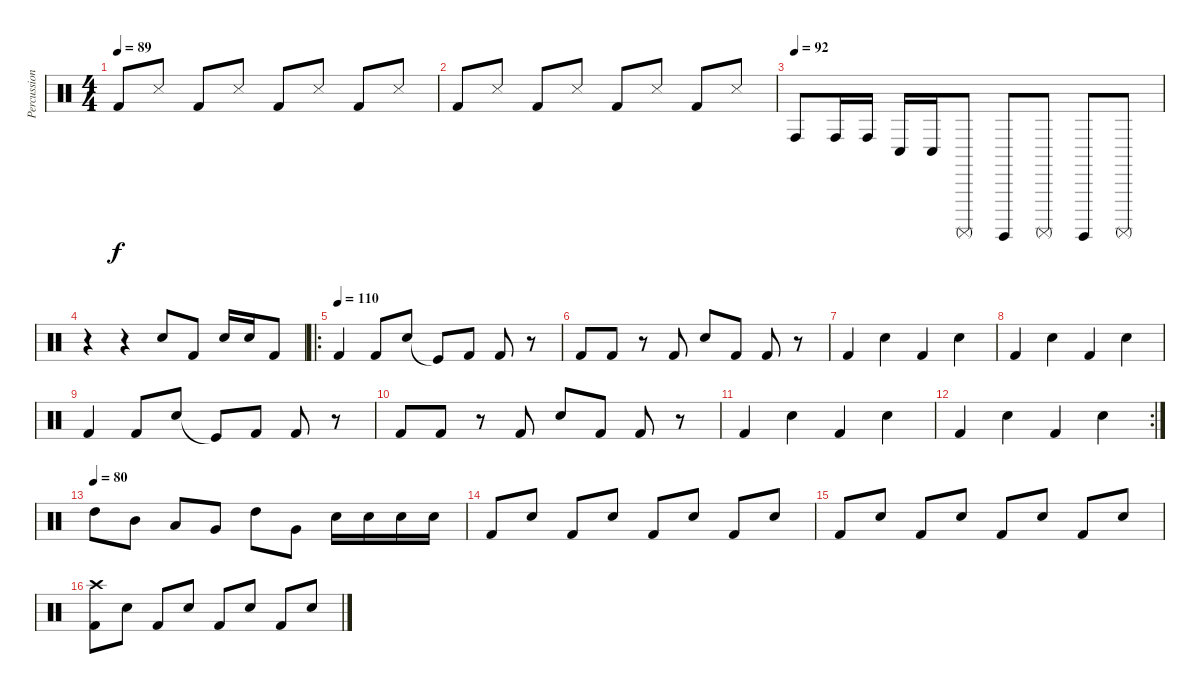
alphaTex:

\track ("Percussion" "Percussion") {instrument percussion}
\staff {score}
\articulation defaults
\ts (4 4)
\tempo 89
\clef neutral
\ks c "Kick (hit) 2".8{dy f} "Snare (side stick) 3".8 "Kick (hit) 2".8 "Snare (side stick) 3".8 "Kick (hit) 2".8 "Snare (side stick) 3".8 "Kick (hit) 2".8 "Snare (side stick) 3".8
|
"Kick (hit) 2".8 "Snare (side stick) 3".8 "Kick (hit) 2".8 "Snare (side stick) 3".8 "Kick (hit) 2".8 "Snare (side stick) 3".8 "Kick (hit) 2".8 "Snare (side stick) 3".8 |
\tempo (92)
"Conga high (hit)".8 "Conga high (hit)".16 "Conga high (hit)".16 "Conga low (hit)".16 "Conga low (hit)".16 "Surdo (mute)".8 "Surdo (hit)".8 "Surdo (mute)".8 "Surdo (hit)".8 "Surdo (mute)".8 |
r.4 r.4 "Electric Snare (hit)".8 "Kick (hit) 2".8 "Electric Snare (hit)".16 "Electric Snare (hit)".16 "Kick (hit) 2".8 |
\ro
\tempo (110)
"Kick (hit) 2".4 "Kick (hit) 2".8 "Electric Snare (hit)".8 "Kick (hit)"{t}.8 "Kick (hit) 2".8 "Kick (hit) 2".8 r.8 |
"Kick (hit) 2".8 "Kick (hit) 2".8 r.8 "Kick (hit) 2".8 "Electric Snare (hit)".8 "Kick (hit) 2".8 "Kick (hit) 2".8 r.8 |
"Kick (hit) 2".4 "Electric Snare (hit)".4 "Kick (hit) 2".4 "Electric Snare (hit)".4 |
"Kick (hit) 2".4 "Electric Snare (hit)".4 "Kick (hit) 2".4 "Electric Snare (hit)".4 |
"Kick (hit) 2".4 "Kick (hit) 2".8 "Electric Snare (hit)".8 "Kick (hit)"{t}.8 "Kick (hit) 2".8 "Kick (hit) 2".8 r.8 |
"Kick (hit) 2".8 "Kick (hit) 2".8 r.8 "Kick (hit) 2".8 "Electric Snare (hit)".8 "Kick (hit) 2".8 "Kick (hit) 2".8 r.8 |
"Kick (hit) 2".4 "Electric Snare (hit)".4 "Kick (hit) 2".4 "Electric Snare (hit)".4 |
\rc 2 "Kick (hit) 2".4 "Electric Snare (hit)".4 "Kick (hit) 2".4 "Electric Snare (hit)".4
|
\tempo (80)
"High Tom (hit)".8 "Mid Tom (hit)".8 "Low Tom (hit)".8 "Very Low Tom (hit)".8 "High Tom (hit)".8 "Very Low Tom (hit)".8 "Electric Snare (hit)".16 "Electric Snare (hit)".16 "Electric Snare (hit)".16 "Electric Snare (hit)".16 |
"Kick (hit) 2".8 "Electric Snare (hit)".8 "Kick (hit) 2".8 "Electric Snare (hit)".8 "Kick (hit) 2".8 "Electric Snare (hit)".8 "Kick (hit) 2".8 "Electric Snare (hit)".8 |
"Kick (hit) 2".8 "Electric Snare (hit)".8 "Kick (hit) 2".8 "Electric Snare (hit)".8 "Kick (hit) 2".8 "Electric Snare (hit)".8 "Kick (hit) 2".8 "Electric Snare (hit)".8 |
("Crash high (hit)" "Kick (hit) 2").8 "Electric Snare (hit)".8 "Kick (hit) 2".8 "Electric Snare (hit)".8 "Kick (hit) 2".8 "Electric Snare (hit)".8 "Kick (hit) 2".8 "Electric Snare (hit)".8
